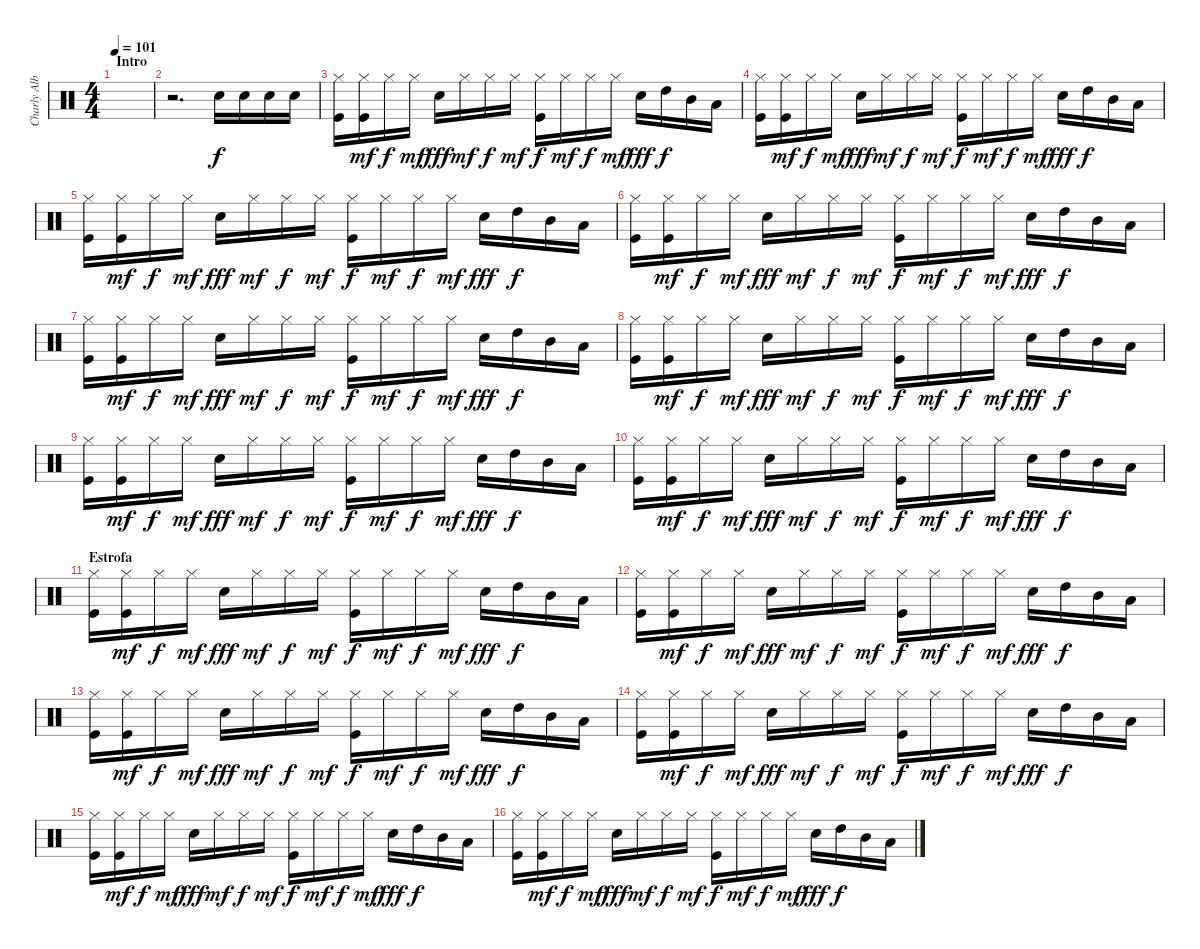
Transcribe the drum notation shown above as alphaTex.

\track ("Charly Alberti" "Charly Alb") {instrument percussion}
\staff {score}
\articulation defaults
\ts (4 4)
\section ("" "Intro")
\tempo 101
\clef neutral
\ks c
|
r.2{d} "Snare (hit) 2".16 "Snare (hit) 2".16 "Snare (hit) 2".16 "Snare (hit) 2".16 |
("Kick (hit)" "Hi-Hat (closed)").16{dy f} ("Kick (hit)" "Hi-Hat (closed)").16{dy mf} "Hi-Hat (closed)".16{dy f} "Hi-Hat (closed)".16{dy mf} "Snare (hit) 2".16{dy fff} "Hi-Hat (closed)".16{dy mf} "Hi-Hat (closed)".16{dy f} "Hi-Hat (closed)".16{dy mf} ("Kick (hit)" "Hi-Hat (closed)").16{dy f} "Hi-Hat (closed)".16{dy mf} "Hi-Hat (closed)".16{dy f} "Hi-Hat (closed)".16{dy mf} "Snare (hit) 2".16{dy fff} "High Tom (hit)".16{dy f} "Mid Tom (hit)".16 "Low Tom (hit)".16 |
("Kick (hit)" "Hi-Hat (closed)").16 ("Kick (hit)" "Hi-Hat (closed)").16{dy mf} "Hi-Hat (closed)".16{dy f} "Hi-Hat (closed)".16{dy mf} "Snare (hit) 2".16{dy fff} "Hi-Hat (closed)".16{dy mf} "Hi-Hat (closed)".16{dy f} "Hi-Hat (closed)".16{dy mf} ("Kick (hit)" "Hi-Hat (closed)").16{dy f} "Hi-Hat (closed)".16{dy mf} "Hi-Hat (closed)".16{dy f} "Hi-Hat (closed)".16{dy mf} "Snare (hit) 2".16{dy fff} "High Tom (hit)".16{dy f} "Mid Tom (hit)".16 "Low Tom (hit)".16 |
("Kick (hit)" "Hi-Hat (closed)").16 ("Kick (hit)" "Hi-Hat (closed)").16{dy mf} "Hi-Hat (closed)".16{dy f} "Hi-Hat (closed)".16{dy mf} "Snare (hit) 2".16{dy fff} "Hi-Hat (closed)".16{dy mf} "Hi-Hat (closed)".16{dy f} "Hi-Hat (closed)".16{dy mf} ("Kick (hit)" "Hi-Hat (closed)").16{dy f} "Hi-Hat (closed)".16{dy mf} "Hi-Hat (closed)".16{dy f} "Hi-Hat (closed)".16{dy mf} "Snare (hit) 2".16{dy fff} "High Tom (hit)".16{dy f} "Mid Tom (hit)".16 "Low Tom (hit)".16 |
("Kick (hit)" "Hi-Hat (closed)").16 ("Kick (hit)" "Hi-Hat (closed)").16{dy mf} "Hi-Hat (closed)".16{dy f} "Hi-Hat (closed)".16{dy mf} "Snare (hit) 2".16{dy fff} "Hi-Hat (closed)".16{dy mf} "Hi-Hat (closed)".16{dy f} "Hi-Hat (closed)".16{dy mf} ("Kick (hit)" "Hi-Hat (closed)").16{dy f} "Hi-Hat (closed)".16{dy mf} "Hi-Hat (closed)".16{dy f} "Hi-Hat (closed)".16{dy mf} "Snare (hit) 2".16{dy fff} "High Tom (hit)".16{dy f} "Mid Tom (hit)".16 "Low Tom (hit)".16 |
("Kick (hit)" "Hi-Hat (closed)").16 ("Kick (hit)" "Hi-Hat (closed)").16{dy mf} "Hi-Hat (closed)".16{dy f} "Hi-Hat (closed)".16{dy mf} "Snare (hit) 2".16{dy fff} "Hi-Hat (closed)".16{dy mf} "Hi-Hat (closed)".16{dy f} "Hi-Hat (closed)".16{dy mf} ("Kick (hit)" "Hi-Hat (closed)").16{dy f} "Hi-Hat (closed)".16{dy mf} "Hi-Hat (closed)".16{dy f} "Hi-Hat (closed)".16{dy mf} "Snare (hit) 2".16{dy fff} "High Tom (hit)".16{dy f} "Mid Tom (hit)".16 "Low Tom (hit)".16 |
("Kick (hit)" "Hi-Hat (closed)").16 ("Kick (hit)" "Hi-Hat (closed)").16{dy mf} "Hi-Hat (closed)".16{dy f} "Hi-Hat (closed)".16{dy mf} "Snare (hit) 2".16{dy fff} "Hi-Hat (closed)".16{dy mf} "Hi-Hat (closed)".16{dy f} "Hi-Hat (closed)".16{dy mf} ("Kick (hit)" "Hi-Hat (closed)").16{dy f} "Hi-Hat (closed)".16{dy mf} "Hi-Hat (closed)".16{dy f} "Hi-Hat (closed)".16{dy mf} "Snare (hit) 2".16{dy fff} "High Tom (hit)".16{dy f} "Mid Tom (hit)".16 "Low Tom (hit)".16 |
("Kick (hit)" "Hi-Hat (closed)").16 ("Kick (hit)" "Hi-Hat (closed)").16{dy mf} "Hi-Hat (closed)".16{dy f} "Hi-Hat (closed)".16{dy mf} "Snare (hit) 2".16{dy fff} "Hi-Hat (closed)".16{dy mf} "Hi-Hat (closed)".16{dy f} "Hi-Hat (closed)".16{dy mf} ("Kick (hit)" "Hi-Hat (closed)").16{dy f} "Hi-Hat (closed)".16{dy mf} "Hi-Hat (closed)".16{dy f} "Hi-Hat (closed)".16{dy mf} "Snare (hit) 2".16{dy fff} "High Tom (hit)".16{dy f} "Mid Tom (hit)".16 "Low Tom (hit)".16 |
("Kick (hit)" "Hi-Hat (closed)").16 ("Kick (hit)" "Hi-Hat (closed)").16{dy mf} "Hi-Hat (closed)".16{dy f} "Hi-Hat (closed)".16{dy mf} "Snare (hit) 2".16{dy fff} "Hi-Hat (closed)".16{dy mf} "Hi-Hat (closed)".16{dy f} "Hi-Hat (closed)".16{dy mf} ("Kick (hit)" "Hi-Hat (closed)").16{dy f} "Hi-Hat (closed)".16{dy mf} "Hi-Hat (closed)".16{dy f} "Hi-Hat (closed)".16{dy mf} "Snare (hit) 2".16{dy fff} "High Tom (hit)".16{dy f} "Mid Tom (hit)".16 "Low Tom (hit)".16 |
\section ("" "Estrofa")
("Kick (hit)" "Hi-Hat (closed)").16 ("Kick (hit)" "Hi-Hat (closed)").16{dy mf} "Hi-Hat (closed)".16{dy f} "Hi-Hat (closed)".16{dy mf} "Snare (hit) 2".16{dy fff} "Hi-Hat (closed)".16{dy mf} "Hi-Hat (closed)".16{dy f} "Hi-Hat (closed)".16{dy mf} ("Kick (hit)" "Hi-Hat (closed)").16{dy f} "Hi-Hat (closed)".16{dy mf} "Hi-Hat (closed)".16{dy f} "Hi-Hat (closed)".16{dy mf} "Snare (hit) 2".16{dy fff} "High Tom (hit)".16{dy f} "Mid Tom (hit)".16 "Low Tom (hit)".16 |
("Kick (hit)" "Hi-Hat (closed)").16 ("Kick (hit)" "Hi-Hat (closed)").16{dy mf} "Hi-Hat (closed)".16{dy f} "Hi-Hat (closed)".16{dy mf} "Snare (hit) 2".16{dy fff} "Hi-Hat (closed)".16{dy mf} "Hi-Hat (closed)".16{dy f} "Hi-Hat (closed)".16{dy mf} ("Kick (hit)" "Hi-Hat (closed)").16{dy f} "Hi-Hat (closed)".16{dy mf} "Hi-Hat (closed)".16{dy f} "Hi-Hat (closed)".16{dy mf} "Snare (hit) 2".16{dy fff} "High Tom (hit)".16{dy f} "Mid Tom (hit)".16 "Low Tom (hit)".16 |
("Kick (hit)" "Hi-Hat (closed)").16 ("Kick (hit)" "Hi-Hat (closed)").16{dy mf} "Hi-Hat (closed)".16{dy f} "Hi-Hat (closed)".16{dy mf} "Snare (hit) 2".16{dy fff} "Hi-Hat (closed)".16{dy mf} "Hi-Hat (closed)".16{dy f} "Hi-Hat (closed)".16{dy mf} ("Kick (hit)" "Hi-Hat (closed)").16{dy f} "Hi-Hat (closed)".16{dy mf} "Hi-Hat (closed)".16{dy f} "Hi-Hat (closed)".16{dy mf} "Snare (hit) 2".16{dy fff} "High Tom (hit)".16{dy f} "Mid Tom (hit)".16 "Low Tom (hit)".16 |
("Kick (hit)" "Hi-Hat (closed)").16 ("Kick (hit)" "Hi-Hat (closed)").16{dy mf} "Hi-Hat (closed)".16{dy f} "Hi-Hat (closed)".16{dy mf} "Snare (hit) 2".16{dy fff} "Hi-Hat (closed)".16{dy mf} "Hi-Hat (closed)".16{dy f} "Hi-Hat (closed)".16{dy mf} ("Kick (hit)" "Hi-Hat (closed)").16{dy f} "Hi-Hat (closed)".16{dy mf} "Hi-Hat (closed)".16{dy f} "Hi-Hat (closed)".16{dy mf} "Snare (hit) 2".16{dy fff} "High Tom (hit)".16{dy f} "Mid Tom (hit)".16 "Low Tom (hit)".16 |
("Kick (hit)" "Hi-Hat (closed)").16 ("Kick (hit)" "Hi-Hat (closed)").16{dy mf} "Hi-Hat (closed)".16{dy f} "Hi-Hat (closed)".16{dy mf} "Snare (hit) 2".16{dy fff} "Hi-Hat (closed)".16{dy mf} "Hi-Hat (closed)".16{dy f} "Hi-Hat (closed)".16{dy mf} ("Kick (hit)" "Hi-Hat (closed)").16{dy f} "Hi-Hat (closed)".16{dy mf} "Hi-Hat (closed)".16{dy f} "Hi-Hat (closed)".16{dy mf} "Snare (hit) 2".16{dy fff} "High Tom (hit)".16{dy f} "Mid Tom (hit)".16 "Low Tom (hit)".16 |
("Kick (hit)" "Hi-Hat (closed)").16 ("Kick (hit)" "Hi-Hat (closed)").16{dy mf} "Hi-Hat (closed)".16{dy f} "Hi-Hat (closed)".16{dy mf} "Snare (hit) 2".16{dy fff} "Hi-Hat (closed)".16{dy mf} "Hi-Hat (closed)".16{dy f} "Hi-Hat (closed)".16{dy mf} ("Kick (hit)" "Hi-Hat (closed)").16{dy f} "Hi-Hat (closed)".16{dy mf} "Hi-Hat (closed)".16{dy f} "Hi-Hat (closed)".16{dy mf} "Snare (hit) 2".16{dy fff} "High Tom (hit)".16{dy f} "Mid Tom (hit)".16 "Low Tom (hit)".16
